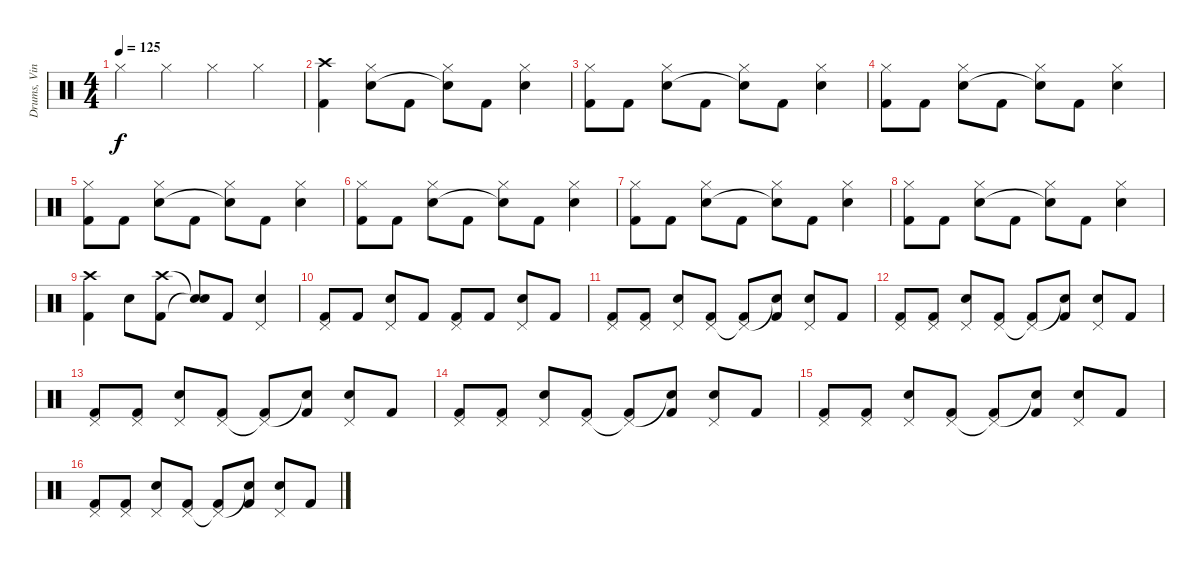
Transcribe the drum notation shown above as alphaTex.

\track ("Drums, Vinnie" "Drums, Vin") {instrument percussion}
\staff {score}
\articulation defaults
\ts (4 4)
\tempo 125
\tempo 250
\tempo 125
\clef neutral
\ks c "Hi-Hat (closed)".4{dy f} "Hi-Hat (closed)".4 "Hi-Hat (closed)".4 "Hi-Hat (closed)".4
|
("Crash high (hit)" "Kick (hit) 2").4 ("Hi-Hat (closed)" "Electric Snare (hit)").8 "Kick (hit) 2".8 ("Hi-Hat (closed)" "Snare (hit)"{t}).8 "Kick (hit) 2".8 ("Hi-Hat (closed)" "Electric Snare (hit)").4 |
("Hi-Hat (closed)" "Kick (hit) 2").8 "Kick (hit) 2".8 ("Hi-Hat (closed)" "Electric Snare (hit)").8 "Kick (hit) 2".8 ("Hi-Hat (closed)" "Snare (hit)"{t}).8 "Kick (hit) 2".8 ("Hi-Hat (closed)" "Electric Snare (hit)").4 |
("Hi-Hat (closed)" "Kick (hit) 2").8 "Kick (hit) 2".8 ("Hi-Hat (closed)" "Electric Snare (hit)").8 "Kick (hit) 2".8 ("Hi-Hat (closed)" "Snare (hit)"{t}).8 "Kick (hit) 2".8 ("Hi-Hat (closed)" "Electric Snare (hit)").4 |
("Hi-Hat (closed)" "Kick (hit) 2").8 "Kick (hit) 2".8 ("Hi-Hat (closed)" "Electric Snare (hit)").8 "Kick (hit) 2".8 ("Hi-Hat (closed)" "Snare (hit)"{t}).8 "Kick (hit) 2".8 ("Hi-Hat (closed)" "Electric Snare (hit)").4 |
("Hi-Hat (closed)" "Kick (hit) 2").8 "Kick (hit) 2".8 ("Hi-Hat (closed)" "Electric Snare (hit)").8 "Kick (hit) 2".8 ("Hi-Hat (closed)" "Snare (hit)"{t}).8 "Kick (hit) 2".8 ("Hi-Hat (closed)" "Electric Snare (hit)").4 |
("Hi-Hat (closed)" "Kick (hit) 2").8 "Kick (hit) 2".8 ("Hi-Hat (closed)" "Electric Snare (hit)").8 "Kick (hit) 2".8 ("Hi-Hat (closed)" "Snare (hit)"{t}).8 "Kick (hit) 2".8 ("Hi-Hat (closed)" "Electric Snare (hit)").4 |
("Hi-Hat (closed)" "Kick (hit) 2").8 "Kick (hit) 2".8 ("Hi-Hat (closed)" "Electric Snare (hit)").8 "Kick (hit) 2".8 ("Hi-Hat (closed)" "Snare (hit)"{t}).8 "Kick (hit) 2".8 ("Hi-Hat (closed)" "Electric Snare (hit)").4 |
("Crash high (hit)" "Kick (hit) 2").4 "Electric Snare (hit)".8 ("Crash high (hit)" "Kick (hit) 2").8 ("Snare (hit)"{t} "Snare (hit)"{t}).8 "Kick (hit) 2".8 ("Pedal Hi-Hat (hit)" "Electric Snare (hit)").4 |
("Pedal Hi-Hat (hit)" "Kick (hit) 2").8 "Kick (hit) 2".8 ("Pedal Hi-Hat (hit)" "Electric Snare (hit)").8 "Kick (hit) 2".8 ("Pedal Hi-Hat (hit)" "Kick (hit) 2").8 "Kick (hit) 2".8 ("Pedal Hi-Hat (hit)" "Electric Snare (hit)").8 "Kick (hit) 2".8 |
("Pedal Hi-Hat (hit)" "Kick (hit) 2").8 ("Pedal Hi-Hat (hit)" "Kick (hit) 2").8 ("Pedal Hi-Hat (hit)" "Electric Snare (hit)").8 ("Pedal Hi-Hat (hit)" "Kick (hit) 2").8 ("Pedal Hi-Hat (hit)"{t} "Kick (hit) 2").8 ("Snare (hit)"{t} "Kick (hit) 2").8 ("Pedal Hi-Hat (hit)" "Electric Snare (hit)").8 "Kick (hit) 2".8 |
("Pedal Hi-Hat (hit)" "Kick (hit) 2").8 ("Pedal Hi-Hat (hit)" "Kick (hit) 2").8 ("Pedal Hi-Hat (hit)" "Electric Snare (hit)").8 ("Pedal Hi-Hat (hit)" "Kick (hit) 2").8 ("Pedal Hi-Hat (hit)"{t} "Kick (hit) 2").8 ("Snare (hit)"{t} "Kick (hit) 2").8 ("Pedal Hi-Hat (hit)" "Electric Snare (hit)").8 "Kick (hit) 2".8 |
("Pedal Hi-Hat (hit)" "Kick (hit) 2").8 ("Pedal Hi-Hat (hit)" "Kick (hit) 2").8 ("Pedal Hi-Hat (hit)" "Electric Snare (hit)").8 ("Pedal Hi-Hat (hit)" "Kick (hit) 2").8 ("Pedal Hi-Hat (hit)"{t} "Kick (hit) 2").8 ("Snare (hit)"{t} "Kick (hit) 2").8 ("Pedal Hi-Hat (hit)" "Electric Snare (hit)").8 "Kick (hit) 2".8 |
("Pedal Hi-Hat (hit)" "Kick (hit) 2").8 ("Pedal Hi-Hat (hit)" "Kick (hit) 2").8 ("Pedal Hi-Hat (hit)" "Electric Snare (hit)").8 ("Pedal Hi-Hat (hit)" "Kick (hit) 2").8 ("Pedal Hi-Hat (hit)"{t} "Kick (hit) 2").8 ("Snare (hit)"{t} "Kick (hit) 2").8 ("Pedal Hi-Hat (hit)" "Electric Snare (hit)").8 "Kick (hit) 2".8 |
("Pedal Hi-Hat (hit)" "Kick (hit) 2").8 ("Pedal Hi-Hat (hit)" "Kick (hit) 2").8 ("Pedal Hi-Hat (hit)" "Electric Snare (hit)").8 ("Pedal Hi-Hat (hit)" "Kick (hit) 2").8 ("Pedal Hi-Hat (hit)"{t} "Kick (hit) 2").8 ("Snare (hit)"{t} "Kick (hit) 2").8 ("Pedal Hi-Hat (hit)" "Electric Snare (hit)").8 "Kick (hit) 2".8 |
("Pedal Hi-Hat (hit)" "Kick (hit) 2").8 ("Pedal Hi-Hat (hit)" "Kick (hit) 2").8 ("Pedal Hi-Hat (hit)" "Electric Snare (hit)").8 ("Pedal Hi-Hat (hit)" "Kick (hit) 2").8 ("Pedal Hi-Hat (hit)"{t} "Kick (hit) 2").8 ("Snare (hit)"{t} "Kick (hit) 2").8 ("Pedal Hi-Hat (hit)" "Electric Snare (hit)").8 "Kick (hit) 2".8
